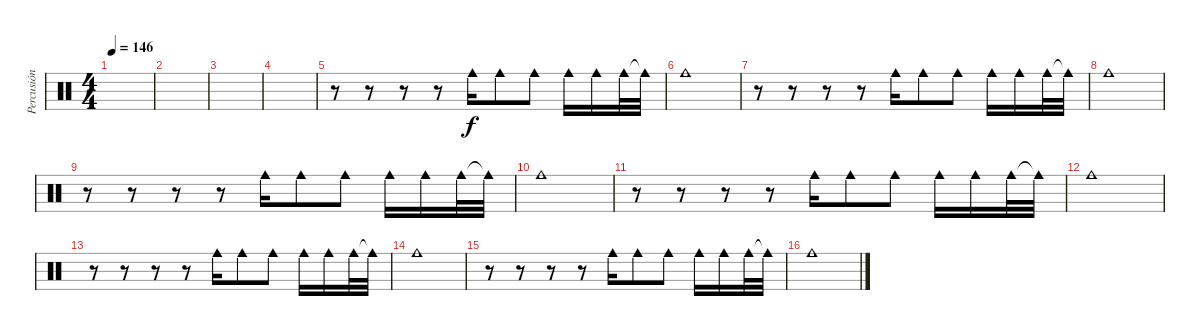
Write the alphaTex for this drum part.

\track ("Percusión" "Percusión") {instrument percussion}
\staff {score}
\articulation defaults
\ts (4 4)
\tempo 146
\clef neutral
\ks c
|
|
|
|
r.8 r.8 r.8 r.8 "Cowbell medium (hit)".16 "Cowbell medium (hit)".8 "Cowbell medium (hit)".8 "Cowbell medium (hit)".16 "Cowbell medium (hit)".16 "Cowbell medium (hit)".32 "Cowbell medium (hit)"{t}.32 |
"Cowbell medium (hit)".1 |
r.8 r.8 r.8 r.8 "Cowbell medium (hit)".16 "Cowbell medium (hit)".8 "Cowbell medium (hit)".8 "Cowbell medium (hit)".16 "Cowbell medium (hit)".16 "Cowbell medium (hit)".32 "Cowbell medium (hit)"{t}.32 |
"Cowbell medium (hit)".1 |
r.8 r.8 r.8 r.8 "Cowbell medium (hit)".16 "Cowbell medium (hit)".8 "Cowbell medium (hit)".8 "Cowbell medium (hit)".16 "Cowbell medium (hit)".16 "Cowbell medium (hit)".32 "Cowbell medium (hit)"{t}.32 |
"Cowbell medium (hit)".1 |
r.8 r.8 r.8 r.8 "Cowbell medium (hit)".16 "Cowbell medium (hit)".8 "Cowbell medium (hit)".8 "Cowbell medium (hit)".16 "Cowbell medium (hit)".16 "Cowbell medium (hit)".32 "Cowbell medium (hit)"{t}.32 |
"Cowbell medium (hit)".1 |
r.8 r.8 r.8 r.8 "Cowbell medium (hit)".16 "Cowbell medium (hit)".8 "Cowbell medium (hit)".8 "Cowbell medium (hit)".16 "Cowbell medium (hit)".16 "Cowbell medium (hit)".32 "Cowbell medium (hit)"{t}.32 |
"Cowbell medium (hit)".1 |
r.8 r.8 r.8 r.8 "Cowbell medium (hit)".16 "Cowbell medium (hit)".8 "Cowbell medium (hit)".8 "Cowbell medium (hit)".16 "Cowbell medium (hit)".16 "Cowbell medium (hit)".32 "Cowbell medium (hit)"{t}.32 |
"Cowbell medium (hit)".1
